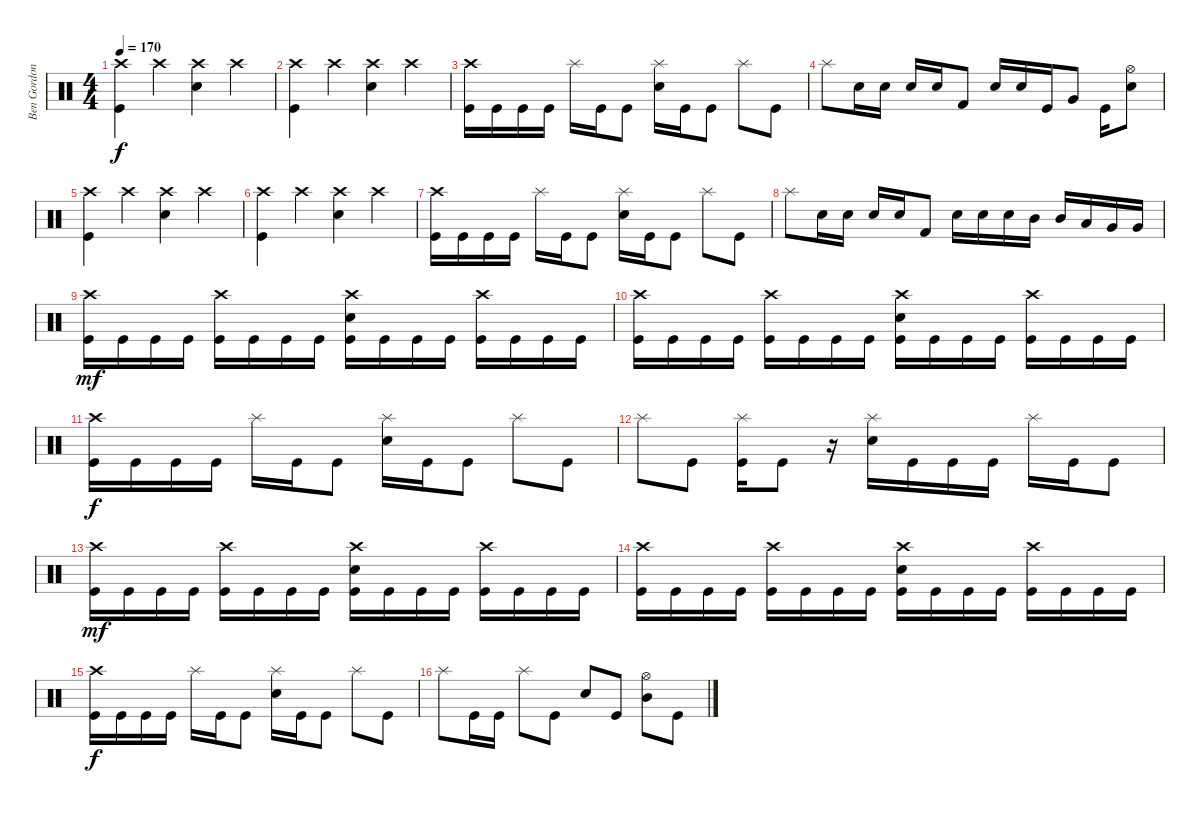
\track ("Ben Gordon" "Ben Gordon") {instrument percussion}
\staff {score}
\articulation defaults
\ts (4 4)
\tempo 170
\clef neutral
\ks c
("Crash high (hit)" "Kick (hit)").4{dy f} "Crash high (hit)".4 ("Crash high (hit)" "Electric Snare (hit)").4 "Crash high (hit)".4 |
("Crash high (hit)" "Kick (hit)").4 "Crash high (hit)".4 ("Crash high (hit)" "Electric Snare (hit)").4 "Crash high (hit)".4 |
("Crash high (hit)" "Kick (hit)").16 "Kick (hit)".16 "Kick (hit)".16 "Kick (hit)".16 "Splash (hit)".16 "Kick (hit)".16 "Kick (hit)".8 ("Splash (hit)" "Electric Snare (hit)").16 "Kick (hit)".16 "Kick (hit)".8 "Splash (hit)".8 "Kick (hit)".8 |
"Splash (hit)".8 "Electric Snare (hit)".16 "Electric Snare (hit)".16 "Electric Snare (hit)".16 "Electric Snare (hit)".16 "Kick (hit) 2".8 "Electric Snare (hit)".16 "Electric Snare (hit)".16 "Kick (hit)".16 "Very Low Tom (hit)".8 "Kick (hit)".16 ("Hi-Hat (open)" "Electric Snare (hit)").8 |
("Crash high (hit)" "Kick (hit)").4 "Crash high (hit)".4 ("Crash high (hit)" "Electric Snare (hit)").4 "Crash high (hit)".4 |
("Crash high (hit)" "Kick (hit)").4 "Crash high (hit)".4 ("Crash high (hit)" "Electric Snare (hit)").4 "Crash high (hit)".4 |
("Crash high (hit)" "Kick (hit)").16 "Kick (hit)".16 "Kick (hit)".16 "Kick (hit)".16 "Splash (hit)".16 "Kick (hit)".16 "Kick (hit)".8 ("Splash (hit)" "Electric Snare (hit)").16 "Kick (hit)".16 "Kick (hit)".8 "Splash (hit)".8 "Kick (hit)".8 |
"Splash (hit)".8 "Electric Snare (hit)".16 "Electric Snare (hit)".16 "Electric Snare (hit)".16 "Electric Snare (hit)".16 "Kick (hit) 2".8 "Electric Snare (hit)".16 "Electric Snare (hit)".16 "Electric Snare (hit)".16 "Mid Tom (hit)".16 "Mid Tom (hit)".16 "Low Tom (hit)".16 "Very Low Tom (hit)".16 "Very Low Tom (hit)".16 |
("Crash high (hit)" "Kick (hit)").16{dy mf} "Kick (hit)".16 "Kick (hit)".16 "Kick (hit)".16 ("Crash high (hit)" "Kick (hit)").16 "Kick (hit)".16 "Kick (hit)".16 "Kick (hit)".16 ("Crash high (hit)" "Electric Snare (hit)" "Kick (hit)").16 "Kick (hit)".16 "Kick (hit)".16 "Kick (hit)".16 ("Crash high (hit)" "Kick (hit)").16 "Kick (hit)".16 "Kick (hit)".16 "Kick (hit)".16 |
("Crash high (hit)" "Kick (hit)").16 "Kick (hit)".16 "Kick (hit)".16 "Kick (hit)".16 ("Crash high (hit)" "Kick (hit)").16 "Kick (hit)".16 "Kick (hit)".16 "Kick (hit)".16 ("Crash high (hit)" "Electric Snare (hit)" "Kick (hit)").16 "Kick (hit)".16 "Kick (hit)".16 "Kick (hit)".16 ("Crash high (hit)" "Kick (hit)").16 "Kick (hit)".16 "Kick (hit)".16 "Kick (hit)".16 |
("Crash high (hit)" "Kick (hit)").16{dy f} "Kick (hit)".16 "Kick (hit)".16 "Kick (hit)".16 "Splash (hit)".16 "Kick (hit)".16 "Kick (hit)".8 ("Splash (hit)" "Electric Snare (hit)").16 "Kick (hit)".16 "Kick (hit)".8 "Splash (hit)".8 "Kick (hit)".8 |
"Splash (hit)".8 "Kick (hit)".8 ("Splash (hit)" "Kick (hit)").16 "Kick (hit)".8 r.16 ("Splash (hit)" "Electric Snare (hit)").16 "Kick (hit)".16 "Kick (hit)".16 "Kick (hit)".16 "Splash (hit)".16 "Kick (hit)".16 "Kick (hit)".8 |
("Crash high (hit)" "Kick (hit)").16{dy mf} "Kick (hit)".16 "Kick (hit)".16 "Kick (hit)".16 ("Crash high (hit)" "Kick (hit)").16 "Kick (hit)".16 "Kick (hit)".16 "Kick (hit)".16 ("Crash high (hit)" "Electric Snare (hit)" "Kick (hit)").16 "Kick (hit)".16 "Kick (hit)".16 "Kick (hit)".16 ("Crash high (hit)" "Kick (hit)").16 "Kick (hit)".16 "Kick (hit)".16 "Kick (hit)".16 |
("Crash high (hit)" "Kick (hit)").16 "Kick (hit)".16 "Kick (hit)".16 "Kick (hit)".16 ("Crash high (hit)" "Kick (hit)").16 "Kick (hit)".16 "Kick (hit)".16 "Kick (hit)".16 ("Crash high (hit)" "Electric Snare (hit)" "Kick (hit)").16 "Kick (hit)".16 "Kick (hit)".16 "Kick (hit)".16 ("Crash high (hit)" "Kick (hit)").16 "Kick (hit)".16 "Kick (hit)".16 "Kick (hit)".16 |
("Crash high (hit)" "Kick (hit)").16{dy f} "Kick (hit)".16 "Kick (hit)".16 "Kick (hit)".16 "Splash (hit)".16 "Kick (hit)".16 "Kick (hit)".8 ("Splash (hit)" "Electric Snare (hit)").16 "Kick (hit)".16 "Kick (hit)".8 "Splash (hit)".8 "Kick (hit)".8 |
"Splash (hit)".8 "Kick (hit)".16 "Kick (hit)".16 "Splash (hit)".8 "Kick (hit)".8 "Electric Snare (hit)".8 "Kick (hit)".8 ("Hi-Hat (open)" "Mid Tom (hit)").8 "Kick (hit)".8
